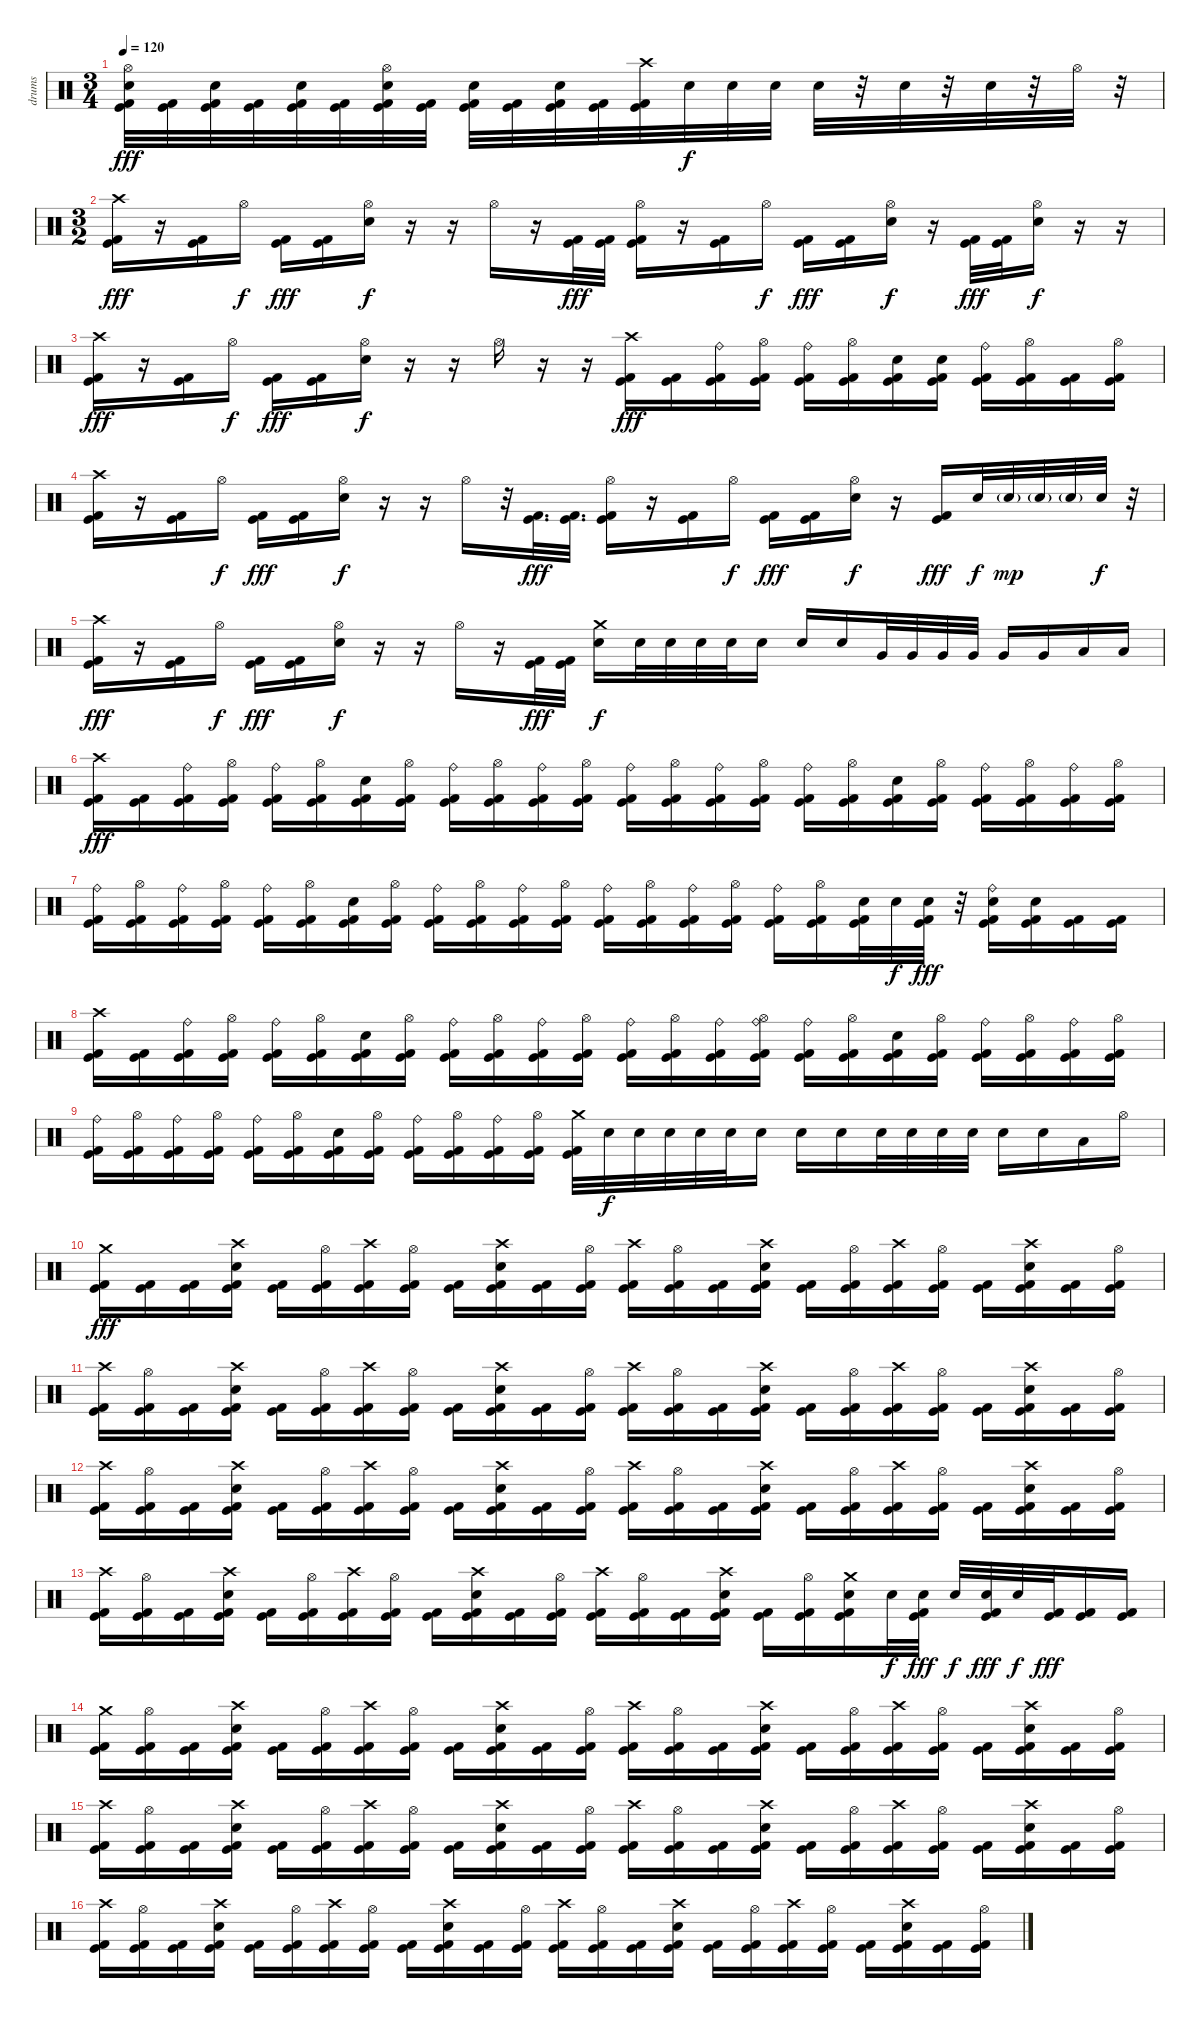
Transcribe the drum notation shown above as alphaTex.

\track ("drums" "drums") {instrument percussion}
\staff {score}
\articulation defaults
\ts (3 4)
\tempo 120
\clef neutral
\ks c
("Hi-Hat (open)" "Electric Snare (hit)" "Kick (hit)" "Kick (hit) 2").32{dy fff} ("Kick (hit)" "Kick (hit) 2").32 ("Electric Snare (hit)" "Kick (hit)" "Kick (hit) 2").32 ("Kick (hit)" "Kick (hit) 2").32 ("Electric Snare (hit)" "Kick (hit)" "Kick (hit) 2").32 ("Kick (hit)" "Kick (hit) 2").32 ("Hi-Hat (open)" "Electric Snare (hit)" "Kick (hit)" "Kick (hit) 2").32 ("Kick (hit)" "Kick (hit) 2").32 ("Electric Snare (hit)" "Kick (hit)" "Kick (hit) 2").32 ("Kick (hit)" "Kick (hit) 2").32 ("Electric Snare (hit)" "Kick (hit)" "Kick (hit) 2").32 ("Kick (hit)" "Kick (hit) 2").32 ("Crash high (hit)" "Kick (hit)" "Kick (hit) 2").32 "Electric Snare (hit)".32{dy f} "Electric Snare (hit)".32 "Electric Snare (hit)".32 "Electric Snare (hit)".32 r.32 "Electric Snare (hit)".32 r.32 "Electric Snare (hit)".32 r.32 "Hi-Hat (open)".32 r.32 |
\ts (3 2)
("Crash high (hit)" "Kick (hit)" "Kick (hit) 2").16{dy fff} r.16 ("Kick (hit)" "Kick (hit) 2").16 "Hi-Hat (open)".16{dy f} ("Kick (hit)" "Kick (hit) 2").16{dy fff} ("Kick (hit)" "Kick (hit) 2").16 ("Hi-Hat (open)" "Electric Snare (hit)").16{dy f} r.16 r.16 "Hi-Hat (open)".16 r.16 ("Kick (hit)" "Kick (hit) 2").32{dy fff} ("Kick (hit)" "Kick (hit) 2").32 ("Hi-Hat (open)" "Kick (hit)" "Kick (hit) 2").16 r.16 ("Kick (hit)" "Kick (hit) 2").16 "Hi-Hat (open)".16{dy f} ("Kick (hit)" "Kick (hit) 2").16{dy fff} ("Kick (hit)" "Kick (hit) 2").16 ("Hi-Hat (open)" "Electric Snare (hit)").16{dy f} r.16 ("Kick (hit)" "Kick (hit) 2").32{dy fff} ("Kick (hit)" "Kick (hit) 2").32 ("Hi-Hat (open)" "Electric Snare (hit)").16{dy f} r.16 r.16 |
("Crash high (hit)" "Kick (hit)" "Kick (hit) 2").16{dy fff} r.16 ("Kick (hit)" "Kick (hit) 2").16 "Hi-Hat (open)".16{dy f} ("Kick (hit)" "Kick (hit) 2").16{dy fff} ("Kick (hit)" "Kick (hit) 2").16 ("Hi-Hat (open)" "Electric Snare (hit)").16{dy f} r.16 r.16 "Hi-Hat (open)".16 r.16 r.16 ("Crash high (hit)" "Kick (hit)" "Kick (hit) 2").16{dy fff} ("Kick (hit)" "Kick (hit) 2").16 ("Ride (bell)" "Kick (hit)" "Kick (hit) 2").16 ("Hi-Hat (open)" "Kick (hit)" "Kick (hit) 2").16 ("Ride (bell)" "Kick (hit)" "Kick (hit) 2").16 ("Hi-Hat (open)" "Kick (hit)" "Kick (hit) 2").16 ("Electric Snare (hit)" "Kick (hit)" "Kick (hit) 2").16 ("Electric Snare (hit)" "Kick (hit)" "Kick (hit) 2").16 ("Ride (bell)" "Kick (hit)" "Kick (hit) 2").16 ("Hi-Hat (open)" "Kick (hit)" "Kick (hit) 2").16 ("Kick (hit)" "Kick (hit) 2").16 ("Hi-Hat (open)" "Kick (hit)" "Kick (hit) 2").16 |
("Crash high (hit)" "Kick (hit)" "Kick (hit) 2").16 r.16 ("Kick (hit)" "Kick (hit) 2").16 "Hi-Hat (open)".16{dy f} ("Kick (hit)" "Kick (hit) 2").16{dy fff} ("Kick (hit)" "Kick (hit) 2").16 ("Hi-Hat (open)" "Electric Snare (hit)").16{dy f} r.16 r.16 "Hi-Hat (open)".16 r.32 ("Kick (hit)" "Kick (hit) 2").32{d dy fff} ("Kick (hit)" "Kick (hit) 2").32{d} ("Hi-Hat (open)" "Kick (hit)" "Kick (hit) 2").16 r.16 ("Kick (hit)" "Kick (hit) 2").16 "Hi-Hat (open)".16{dy f} ("Kick (hit)" "Kick (hit) 2").16{dy fff} ("Kick (hit)" "Kick (hit) 2").16 ("Hi-Hat (open)" "Electric Snare (hit)").16{dy f} r.16 ("Kick (hit)" "Kick (hit) 2").16{dy fff} "Electric Snare (hit)".32{dy f} "Electric Snare (hit)"{g}.32{dy mp} "Electric Snare (hit)"{g}.32 "Electric Snare (hit)"{g}.32 "Electric Snare (hit)".32{dy f} r.32 |
("Crash high (hit)" "Kick (hit)" "Kick (hit) 2").16{dy fff} r.16 ("Kick (hit)" "Kick (hit) 2").16 "Hi-Hat (open)".16{dy f} ("Kick (hit)" "Kick (hit) 2").16{dy fff} ("Kick (hit)" "Kick (hit) 2").16 ("Hi-Hat (open)" "Electric Snare (hit)").16{dy f} r.16 r.16 "Hi-Hat (open)".16 r.16 ("Kick (hit)" "Kick (hit) 2").32{dy fff} ("Kick (hit)" "Kick (hit) 2").32 ("Crash medium (hit)" "Electric Snare (hit)").16{dy f} "Electric Snare (hit)".32 "Electric Snare (hit)".32 "Electric Snare (hit)".32 "Electric Snare (hit)".32 "Electric Snare (hit)".16 "Electric Snare (hit)".16 "Electric Snare (hit)".16 "Very Low Tom (hit)".32 "Very Low Tom (hit)".32 "Very Low Tom (hit)".32 "Very Low Tom (hit)".32 "Very Low Tom (hit)".16 "Very Low Tom (hit)".16 "Low Floor Tom (hit)".16 "Low Floor Tom (hit)".16 |
("Crash high (hit)" "Kick (hit)" "Kick (hit) 2").16{dy fff} ("Kick (hit)" "Kick (hit) 2").16 ("Ride (bell)" "Kick (hit)" "Kick (hit) 2").16 ("Hi-Hat (open)" "Kick (hit)" "Kick (hit) 2").16 ("Ride (bell)" "Kick (hit)" "Kick (hit) 2").16 ("Hi-Hat (open)" "Kick (hit)" "Kick (hit) 2").16 ("Electric Snare (hit)" "Kick (hit)" "Kick (hit) 2").16 ("Hi-Hat (open)" "Kick (hit)" "Kick (hit) 2").16 ("Ride (bell)" "Kick (hit)" "Kick (hit) 2").16 ("Hi-Hat (open)" "Kick (hit)" "Kick (hit) 2").16 ("Ride (bell)" "Kick (hit)" "Kick (hit) 2").16 ("Hi-Hat (open)" "Kick (hit)" "Kick (hit) 2").16 ("Ride (bell)" "Kick (hit)" "Kick (hit) 2").16 ("Hi-Hat (open)" "Kick (hit)" "Kick (hit) 2").16 ("Ride (bell)" "Kick (hit)" "Kick (hit) 2").16 ("Hi-Hat (open)" "Kick (hit)" "Kick (hit) 2").16 ("Ride (bell)" "Kick (hit)" "Kick (hit) 2").16 ("Hi-Hat (open)" "Kick (hit)" "Kick (hit) 2").16 ("Electric Snare (hit)" "Kick (hit)" "Kick (hit) 2").16 ("Hi-Hat (open)" "Kick (hit)" "Kick (hit) 2").16 ("Ride (bell)" "Kick (hit)" "Kick (hit) 2").16 ("Hi-Hat (open)" "Kick (hit)" "Kick (hit) 2").16 ("Ride (bell)" "Kick (hit)" "Kick (hit) 2").16 ("Hi-Hat (open)" "Kick (hit)" "Kick (hit) 2").16 |
("Ride (bell)" "Kick (hit)" "Kick (hit) 2").16 ("Hi-Hat (open)" "Kick (hit)" "Kick (hit) 2").16 ("Ride (bell)" "Kick (hit)" "Kick (hit) 2").16 ("Hi-Hat (open)" "Kick (hit)" "Kick (hit) 2").16 ("Ride (bell)" "Kick (hit)" "Kick (hit) 2").16 ("Hi-Hat (open)" "Kick (hit)" "Kick (hit) 2").16 ("Electric Snare (hit)" "Kick (hit)" "Kick (hit) 2").16 ("Hi-Hat (open)" "Kick (hit)" "Kick (hit) 2").16 ("Ride (bell)" "Kick (hit)" "Kick (hit) 2").16 ("Hi-Hat (open)" "Kick (hit)" "Kick (hit) 2").16 ("Ride (bell)" "Kick (hit)" "Kick (hit) 2").16 ("Hi-Hat (open)" "Kick (hit)" "Kick (hit) 2").16 ("Ride (bell)" "Kick (hit)" "Kick (hit) 2").16 ("Hi-Hat (open)" "Kick (hit)" "Kick (hit) 2").16 ("Ride (bell)" "Kick (hit)" "Kick (hit) 2").16 ("Hi-Hat (open)" "Kick (hit)" "Kick (hit) 2").16 ("Ride (bell)" "Kick (hit)" "Kick (hit) 2").16 ("Hi-Hat (open)" "Kick (hit)" "Kick (hit) 2").16 ("Electric Snare (hit)" "Kick (hit)" "Kick (hit) 2").32 "Electric Snare (hit)".32{dy f} ("Electric Snare (hit)" "Kick (hit)" "Kick (hit) 2").32{dy fff} r.32 ("Ride (bell)" "Electric Snare (hit)" "Kick (hit)" "Kick (hit) 2").16 ("Electric Snare (hit)" "Kick (hit)" "Kick (hit) 2").16 ("Kick (hit)" "Kick (hit) 2").16 ("Kick (hit)" "Kick (hit) 2").16 |
("Crash high (hit)" "Kick (hit)" "Kick (hit) 2").16 ("Kick (hit)" "Kick (hit) 2").16 ("Ride (bell)" "Kick (hit)" "Kick (hit) 2").16 ("Hi-Hat (open)" "Kick (hit)" "Kick (hit) 2").16 ("Ride (bell)" "Kick (hit)" "Kick (hit) 2").16 ("Hi-Hat (open)" "Kick (hit)" "Kick (hit) 2").16 ("Electric Snare (hit)" "Kick (hit)" "Kick (hit) 2").16 ("Hi-Hat (open)" "Kick (hit)" "Kick (hit) 2").16 ("Ride (bell)" "Kick (hit)" "Kick (hit) 2").16 ("Hi-Hat (open)" "Kick (hit)" "Kick (hit) 2").16 ("Ride (bell)" "Kick (hit)" "Kick (hit) 2").16 ("Hi-Hat (open)" "Kick (hit)" "Kick (hit) 2").16 ("Ride (bell)" "Kick (hit)" "Kick (hit) 2").16 ("Hi-Hat (open)" "Kick (hit)" "Kick (hit) 2").16 ("Ride (bell)" "Kick (hit)" "Kick (hit) 2").16 ("Ride (bell)" "Hi-Hat (open)" "Kick (hit)" "Kick (hit) 2").16 ("Ride (bell)" "Kick (hit)" "Kick (hit) 2").16 ("Hi-Hat (open)" "Kick (hit)" "Kick (hit) 2").16 ("Electric Snare (hit)" "Kick (hit)" "Kick (hit) 2").16 ("Hi-Hat (open)" "Kick (hit)" "Kick (hit) 2").16 ("Ride (bell)" "Kick (hit)" "Kick (hit) 2").16 ("Hi-Hat (open)" "Kick (hit)" "Kick (hit) 2").16 ("Ride (bell)" "Kick (hit)" "Kick (hit) 2").16 ("Hi-Hat (open)" "Kick (hit)" "Kick (hit) 2").16 |
("Ride (bell)" "Kick (hit)" "Kick (hit) 2").16 ("Hi-Hat (open)" "Kick (hit)" "Kick (hit) 2").16 ("Ride (bell)" "Kick (hit)" "Kick (hit) 2").16 ("Hi-Hat (open)" "Kick (hit)" "Kick (hit) 2").16 ("Ride (bell)" "Kick (hit)" "Kick (hit) 2").16 ("Hi-Hat (open)" "Kick (hit)" "Kick (hit) 2").16 ("Electric Snare (hit)" "Kick (hit)" "Kick (hit) 2").16 ("Hi-Hat (open)" "Kick (hit)" "Kick (hit) 2").16 ("Ride (bell)" "Kick (hit)" "Kick (hit) 2").16 ("Hi-Hat (open)" "Kick (hit)" "Kick (hit) 2").16 ("Ride (bell)" "Kick (hit)" "Kick (hit) 2").16 ("Hi-Hat (open)" "Kick (hit)" "Kick (hit) 2").16 ("Crash medium (hit)" "Kick (hit)" "Kick (hit) 2").32 "Electric Snare (hit)".32{dy f} "Electric Snare (hit)".32 "Electric Snare (hit)".32 "Electric Snare (hit)".32 "Electric Snare (hit)".32 "Electric Snare (hit)".16 "Electric Snare (hit)".16 "Electric Snare (hit)".16 "Electric Snare (hit)".32 "Electric Snare (hit)".32 "Electric Snare (hit)".32 "Electric Snare (hit)".32 "Electric Snare (hit)".16 "Electric Snare (hit)".16 "Low Tom (hit)".16 "Hi-Hat (open)".16 |
("Crash medium (hit)" "Kick (hit)" "Kick (hit) 2").16{dy fff} ("Kick (hit)" "Kick (hit) 2").16 ("Kick (hit)" "Kick (hit) 2").16 ("Crash high (hit)" "Electric Snare (hit)" "Kick (hit)" "Kick (hit) 2").16 ("Kick (hit)" "Kick (hit) 2").16 ("Hi-Hat (open)" "Kick (hit)" "Kick (hit) 2").16 ("Crash high (hit)" "Kick (hit)" "Kick (hit) 2").16 ("Hi-Hat (open)" "Kick (hit)" "Kick (hit) 2").16 ("Kick (hit)" "Kick (hit) 2").16 ("Crash high (hit)" "Electric Snare (hit)" "Kick (hit)" "Kick (hit) 2").16 ("Kick (hit)" "Kick (hit) 2").16 ("Hi-Hat (open)" "Kick (hit)" "Kick (hit) 2").16 ("Crash high (hit)" "Kick (hit)" "Kick (hit) 2").16 ("Hi-Hat (open)" "Kick (hit)" "Kick (hit) 2").16 ("Kick (hit)" "Kick (hit) 2").16 ("Crash high (hit)" "Electric Snare (hit)" "Kick (hit)" "Kick (hit) 2").16 ("Kick (hit)" "Kick (hit) 2").16 ("Hi-Hat (open)" "Kick (hit)" "Kick (hit) 2").16 ("Crash high (hit)" "Kick (hit)" "Kick (hit) 2").16 ("Hi-Hat (open)" "Kick (hit)" "Kick (hit) 2").16 ("Kick (hit)" "Kick (hit) 2").16 ("Crash high (hit)" "Electric Snare (hit)" "Kick (hit)" "Kick (hit) 2").16 ("Kick (hit)" "Kick (hit) 2").16 ("Hi-Hat (open)" "Kick (hit)" "Kick (hit) 2").16 |
("Crash high (hit)" "Kick (hit)" "Kick (hit) 2").16 ("Hi-Hat (open)" "Kick (hit)" "Kick (hit) 2").16 ("Kick (hit)" "Kick (hit) 2").16 ("Crash high (hit)" "Electric Snare (hit)" "Kick (hit)" "Kick (hit) 2").16 ("Kick (hit)" "Kick (hit) 2").16 ("Hi-Hat (open)" "Kick (hit)" "Kick (hit) 2").16 ("Crash high (hit)" "Kick (hit)" "Kick (hit) 2").16 ("Hi-Hat (open)" "Kick (hit)" "Kick (hit) 2").16 ("Kick (hit)" "Kick (hit) 2").16 ("Crash high (hit)" "Electric Snare (hit)" "Kick (hit)" "Kick (hit) 2").16 ("Kick (hit)" "Kick (hit) 2").16 ("Hi-Hat (open)" "Kick (hit)" "Kick (hit) 2").16 ("Crash high (hit)" "Kick (hit)" "Kick (hit) 2").16 ("Hi-Hat (open)" "Kick (hit)" "Kick (hit) 2").16 ("Kick (hit)" "Kick (hit) 2").16 ("Crash high (hit)" "Electric Snare (hit)" "Kick (hit)" "Kick (hit) 2").16 ("Kick (hit)" "Kick (hit) 2").16 ("Hi-Hat (open)" "Kick (hit)" "Kick (hit) 2").16 ("Crash high (hit)" "Kick (hit)" "Kick (hit) 2").16 ("Hi-Hat (open)" "Kick (hit)" "Kick (hit) 2").16 ("Kick (hit)" "Kick (hit) 2").16 ("Crash high (hit)" "Electric Snare (hit)" "Kick (hit)" "Kick (hit) 2").16 ("Kick (hit)" "Kick (hit) 2").16 ("Hi-Hat (open)" "Kick (hit)" "Kick (hit) 2").16 |
("Crash high (hit)" "Kick (hit)" "Kick (hit) 2").16 ("Hi-Hat (open)" "Kick (hit)" "Kick (hit) 2").16 ("Kick (hit)" "Kick (hit) 2").16 ("Crash high (hit)" "Electric Snare (hit)" "Kick (hit)" "Kick (hit) 2").16 ("Kick (hit)" "Kick (hit) 2").16 ("Hi-Hat (open)" "Kick (hit)" "Kick (hit) 2").16 ("Crash high (hit)" "Kick (hit)" "Kick (hit) 2").16 ("Hi-Hat (open)" "Kick (hit)" "Kick (hit) 2").16 ("Kick (hit)" "Kick (hit) 2").16 ("Crash high (hit)" "Electric Snare (hit)" "Kick (hit)" "Kick (hit) 2").16 ("Kick (hit)" "Kick (hit) 2").16 ("Hi-Hat (open)" "Kick (hit)" "Kick (hit) 2").16 ("Crash high (hit)" "Kick (hit)" "Kick (hit) 2").16 ("Hi-Hat (open)" "Kick (hit)" "Kick (hit) 2").16 ("Kick (hit)" "Kick (hit) 2").16 ("Crash high (hit)" "Electric Snare (hit)" "Kick (hit)" "Kick (hit) 2").16 ("Kick (hit)" "Kick (hit) 2").16 ("Hi-Hat (open)" "Kick (hit)" "Kick (hit) 2").16 ("Crash high (hit)" "Kick (hit)" "Kick (hit) 2").16 ("Hi-Hat (open)" "Kick (hit)" "Kick (hit) 2").16 ("Kick (hit)" "Kick (hit) 2").16 ("Crash high (hit)" "Electric Snare (hit)" "Kick (hit)" "Kick (hit) 2").16 ("Kick (hit)" "Kick (hit) 2").16 ("Hi-Hat (open)" "Kick (hit)" "Kick (hit) 2").16 |
("Crash high (hit)" "Kick (hit)" "Kick (hit) 2").16 ("Hi-Hat (open)" "Kick (hit)" "Kick (hit) 2").16 ("Kick (hit)" "Kick (hit) 2").16 ("Crash high (hit)" "Electric Snare (hit)" "Kick (hit)" "Kick (hit) 2").16 ("Kick (hit)" "Kick (hit) 2").16 ("Hi-Hat (open)" "Kick (hit)" "Kick (hit) 2").16 ("Crash high (hit)" "Kick (hit)" "Kick (hit) 2").16 ("Hi-Hat (open)" "Kick (hit)" "Kick (hit) 2").16 ("Kick (hit)" "Kick (hit) 2").16 ("Crash high (hit)" "Electric Snare (hit)" "Kick (hit)" "Kick (hit) 2").16 ("Kick (hit)" "Kick (hit) 2").16 ("Hi-Hat (open)" "Kick (hit)" "Kick (hit) 2").16 ("Crash high (hit)" "Kick (hit)" "Kick (hit) 2").16 ("Hi-Hat (open)" "Kick (hit)" "Kick (hit) 2").16 ("Kick (hit)" "Kick (hit) 2").16 ("Crash high (hit)" "Electric Snare (hit)" "Kick (hit)" "Kick (hit) 2").16 ("Kick (hit)" "Kick (hit) 2").16 ("Hi-Hat (open)" "Kick (hit)" "Kick (hit) 2").16 ("Crash medium (hit)" "Electric Snare (hit)" "Kick (hit)" "Kick (hit) 2").16 "Electric Snare (hit)".32{dy f} ("Electric Snare (hit)" "Kick (hit)" "Kick (hit) 2").32{dy fff} "Electric Snare (hit)".32{dy f} ("Electric Snare (hit)" "Kick (hit)" "Kick (hit) 2").32{dy fff} "Electric Snare (hit)".32{dy f} ("Kick (hit)" "Kick (hit) 2").32{dy fff} ("Kick (hit)" "Kick (hit) 2").16 ("Kick (hit)" "Kick (hit) 2").16 |
("Crash medium (hit)" "Kick (hit)" "Kick (hit) 2").16 ("Hi-Hat (open)" "Kick (hit)" "Kick (hit) 2").16 ("Kick (hit)" "Kick (hit) 2").16 ("Crash high (hit)" "Electric Snare (hit)" "Kick (hit)" "Kick (hit) 2").16 ("Kick (hit)" "Kick (hit) 2").16 ("Hi-Hat (open)" "Kick (hit)" "Kick (hit) 2").16 ("Crash high (hit)" "Kick (hit)" "Kick (hit) 2").16 ("Hi-Hat (open)" "Kick (hit)" "Kick (hit) 2").16 ("Kick (hit)" "Kick (hit) 2").16 ("Crash high (hit)" "Electric Snare (hit)" "Kick (hit)" "Kick (hit) 2").16 ("Kick (hit)" "Kick (hit) 2").16 ("Hi-Hat (open)" "Kick (hit)" "Kick (hit) 2").16 ("Crash high (hit)" "Kick (hit)" "Kick (hit) 2").16 ("Hi-Hat (open)" "Kick (hit)" "Kick (hit) 2").16 ("Kick (hit)" "Kick (hit) 2").16 ("Crash high (hit)" "Electric Snare (hit)" "Kick (hit)" "Kick (hit) 2").16 ("Kick (hit)" "Kick (hit) 2").16 ("Hi-Hat (open)" "Kick (hit)" "Kick (hit) 2").16 ("Crash high (hit)" "Kick (hit)" "Kick (hit) 2").16 ("Hi-Hat (open)" "Kick (hit)" "Kick (hit) 2").16 ("Kick (hit)" "Kick (hit) 2").16 ("Crash high (hit)" "Electric Snare (hit)" "Kick (hit)" "Kick (hit) 2").16 ("Kick (hit)" "Kick (hit) 2").16 ("Hi-Hat (open)" "Kick (hit)" "Kick (hit) 2").16 |
("Crash high (hit)" "Kick (hit)" "Kick (hit) 2").16 ("Hi-Hat (open)" "Kick (hit)" "Kick (hit) 2").16 ("Kick (hit)" "Kick (hit) 2").16 ("Crash high (hit)" "Electric Snare (hit)" "Kick (hit)" "Kick (hit) 2").16 ("Kick (hit)" "Kick (hit) 2").16 ("Hi-Hat (open)" "Kick (hit)" "Kick (hit) 2").16 ("Crash high (hit)" "Kick (hit)" "Kick (hit) 2").16 ("Hi-Hat (open)" "Kick (hit)" "Kick (hit) 2").16 ("Kick (hit)" "Kick (hit) 2").16 ("Crash high (hit)" "Electric Snare (hit)" "Kick (hit)" "Kick (hit) 2").16 ("Kick (hit)" "Kick (hit) 2").16 ("Hi-Hat (open)" "Kick (hit)" "Kick (hit) 2").16 ("Crash high (hit)" "Kick (hit)" "Kick (hit) 2").16 ("Hi-Hat (open)" "Kick (hit)" "Kick (hit) 2").16 ("Kick (hit)" "Kick (hit) 2").16 ("Crash high (hit)" "Electric Snare (hit)" "Kick (hit)" "Kick (hit) 2").16 ("Kick (hit)" "Kick (hit) 2").16 ("Hi-Hat (open)" "Kick (hit)" "Kick (hit) 2").16 ("Crash high (hit)" "Kick (hit)" "Kick (hit) 2").16 ("Hi-Hat (open)" "Kick (hit)" "Kick (hit) 2").16 ("Kick (hit)" "Kick (hit) 2").16 ("Crash high (hit)" "Electric Snare (hit)" "Kick (hit)" "Kick (hit) 2").16 ("Kick (hit)" "Kick (hit) 2").16 ("Hi-Hat (open)" "Kick (hit)" "Kick (hit) 2").16 |
("Crash high (hit)" "Kick (hit)" "Kick (hit) 2").16 ("Hi-Hat (open)" "Kick (hit)" "Kick (hit) 2").16 ("Kick (hit)" "Kick (hit) 2").16 ("Crash high (hit)" "Electric Snare (hit)" "Kick (hit)" "Kick (hit) 2").16 ("Kick (hit)" "Kick (hit) 2").16 ("Hi-Hat (open)" "Kick (hit)" "Kick (hit) 2").16 ("Crash high (hit)" "Kick (hit)" "Kick (hit) 2").16 ("Hi-Hat (open)" "Kick (hit)" "Kick (hit) 2").16 ("Kick (hit)" "Kick (hit) 2").16 ("Crash high (hit)" "Electric Snare (hit)" "Kick (hit)" "Kick (hit) 2").16 ("Kick (hit)" "Kick (hit) 2").16 ("Hi-Hat (open)" "Kick (hit)" "Kick (hit) 2").16 ("Crash high (hit)" "Kick (hit)" "Kick (hit) 2").16 ("Hi-Hat (open)" "Kick (hit)" "Kick (hit) 2").16 ("Kick (hit)" "Kick (hit) 2").16 ("Crash high (hit)" "Electric Snare (hit)" "Kick (hit)" "Kick (hit) 2").16 ("Kick (hit)" "Kick (hit) 2").16 ("Hi-Hat (open)" "Kick (hit)" "Kick (hit) 2").16 ("Crash high (hit)" "Kick (hit)" "Kick (hit) 2").16 ("Hi-Hat (open)" "Kick (hit)" "Kick (hit) 2").16 ("Kick (hit)" "Kick (hit) 2").16 ("Crash high (hit)" "Electric Snare (hit)" "Kick (hit)" "Kick (hit) 2").16 ("Kick (hit)" "Kick (hit) 2").16 ("Hi-Hat (open)" "Kick (hit)" "Kick (hit) 2").16
